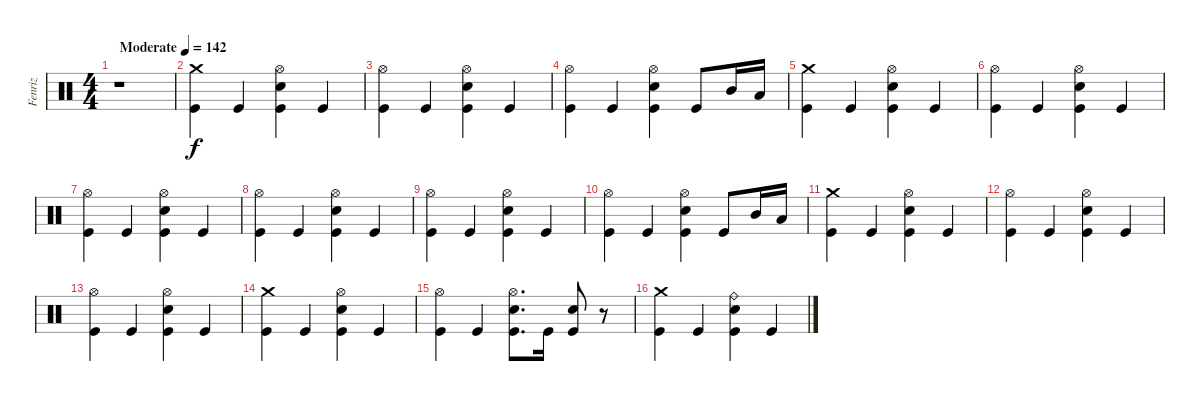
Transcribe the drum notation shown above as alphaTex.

\track ("Fenriz" "Fenriz") {instrument percussion}
\staff {score}
\articulation defaults
\ts (4 4)
\tempo (142 "Moderate")
\clef neutral
\ks c
r.1{dy f} |
("Crash medium (hit)" "Kick (hit)").4 "Kick (hit)".4 ("Electric Snare (hit)" "Hi-Hat (open)" "Kick (hit)").4 "Kick (hit)".4 |
("Hi-Hat (open)" "Kick (hit)").4 "Kick (hit)".4 ("Electric Snare (hit)" "Hi-Hat (open)" "Kick (hit)").4 "Kick (hit)".4 |
("Hi-Hat (open)" "Kick (hit)").4 "Kick (hit)".4 ("Electric Snare (hit)" "Hi-Hat (open)" "Kick (hit)").4 "Kick (hit)".8 "Mid Tom (hit)".16 "Low Tom (hit)".16 |
("Crash medium (hit)" "Kick (hit)").4 "Kick (hit)".4 ("Electric Snare (hit)" "Hi-Hat (open)" "Kick (hit)").4 "Kick (hit)".4 |
("Hi-Hat (open)" "Kick (hit)").4 "Kick (hit)".4 ("Electric Snare (hit)" "Hi-Hat (open)" "Kick (hit)").4 "Kick (hit)".4 |
("Hi-Hat (open)" "Kick (hit)").4 "Kick (hit)".4 ("Electric Snare (hit)" "Hi-Hat (open)" "Kick (hit)").4 "Kick (hit)".4 |
("Hi-Hat (open)" "Kick (hit)").4 "Kick (hit)".4 ("Electric Snare (hit)" "Hi-Hat (open)" "Kick (hit)").4 "Kick (hit)".4 |
("Hi-Hat (open)" "Kick (hit)").4 "Kick (hit)".4 ("Electric Snare (hit)" "Hi-Hat (open)" "Kick (hit)").4 "Kick (hit)".4 |
("Hi-Hat (open)" "Kick (hit)").4 "Kick (hit)".4 ("Electric Snare (hit)" "Hi-Hat (open)" "Kick (hit)").4 "Kick (hit)".8 "Mid Tom (hit)".16 "Low Tom (hit)".16 |
("Crash medium (hit)" "Kick (hit)").4 "Kick (hit)".4 ("Electric Snare (hit)" "Hi-Hat (open)" "Kick (hit)").4 "Kick (hit)".4 |
("Hi-Hat (open)" "Kick (hit)").4 "Kick (hit)".4 ("Electric Snare (hit)" "Hi-Hat (open)" "Kick (hit)").4 "Kick (hit)".4 |
("Hi-Hat (open)" "Kick (hit)").4 "Kick (hit)".4 ("Electric Snare (hit)" "Hi-Hat (open)" "Kick (hit)").4 "Kick (hit)".4 |
("Crash medium (hit)" "Kick (hit)").4 "Kick (hit)".4 ("Electric Snare (hit)" "Hi-Hat (open)" "Kick (hit)").4 "Kick (hit)".4 |
("Hi-Hat (open)" "Kick (hit)").4 "Kick (hit)".4 ("Electric Snare (hit)" "Hi-Hat (open)" "Kick (hit)").8{d} "Kick (hit)".16 ("Electric Snare (hit)" "Kick (hit)").8 r.8 |
("Crash medium (hit)" "Kick (hit)").4 "Kick (hit)".4 ("Electric Snare (hit)" "Ride (bell)" "Kick (hit)").4 "Kick (hit)".4
